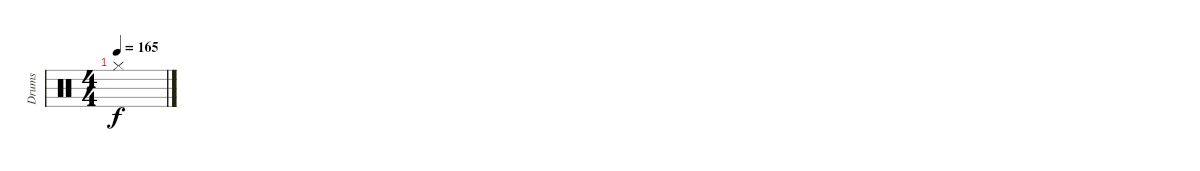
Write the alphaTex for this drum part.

\track ("Drums" "Drums") {instrument percussion}
\staff {score}
\articulation defaults
\ts (4 4)
\tempo 165
\clef neutral
\ks c "Hi-Hat (closed)".1{dy f}
